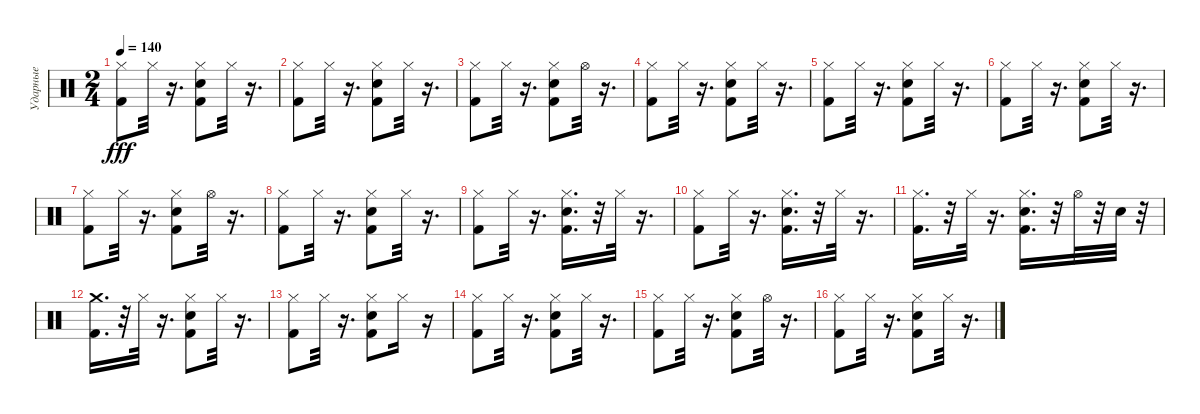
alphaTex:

\track ("Ударные" "Ударные") {instrument percussion}
\staff {score}
\articulation defaults
\ts (2 4)
\tempo 140
\clef neutral
\ks c
("Kick (hit) 2" "Hi-Hat (closed)").8{dy fff} "Hi-Hat (closed)".32 r.16{d} ("Kick (hit) 2" "Hi-Hat (closed)" "Snare (hit) 2").8 "Hi-Hat (closed)".32 r.16{d} |
("Kick (hit) 2" "Hi-Hat (closed)").8 "Hi-Hat (closed)".32 r.16{d} ("Snare (hit) 2" "Kick (hit) 2" "Hi-Hat (closed)").8 "Hi-Hat (closed)".32 r.16{d} |
("Kick (hit) 2" "Hi-Hat (closed)").8 "Hi-Hat (closed)".32 r.16{d} ("Snare (hit) 2" "Kick (hit) 2" "Hi-Hat (closed)").8 "Hi-Hat (open)".32 r.16{d} |
("Kick (hit) 2" "Hi-Hat (closed)").8 "Hi-Hat (closed)".32 r.16{d} ("Snare (hit) 2" "Kick (hit) 2" "Hi-Hat (closed)").8 "Hi-Hat (closed)".32 r.16{d} |
("Kick (hit) 2" "Hi-Hat (closed)").8 "Hi-Hat (closed)".32 r.16{d} ("Snare (hit) 2" "Kick (hit) 2" "Hi-Hat (closed)").8 "Hi-Hat (closed)".32 r.16{d} |
("Kick (hit) 2" "Hi-Hat (closed)").8 "Hi-Hat (closed)".32 r.16{d} ("Hi-Hat (closed)" "Snare (hit) 2" "Kick (hit) 2").8 "Hi-Hat (closed)".32 r.16{d} |
("Kick (hit) 2" "Hi-Hat (closed)").8 "Hi-Hat (closed)".32 r.16{d} ("Snare (hit) 2" "Kick (hit) 2" "Hi-Hat (closed)").8 "Hi-Hat (open)".32 r.16{d} |
("Kick (hit) 2" "Hi-Hat (closed)").8 "Hi-Hat (closed)".32 r.16{d} ("Kick (hit) 2" "Hi-Hat (closed)" "Snare (hit) 2").8 "Hi-Hat (closed)".32 r.16{d} |
("Kick (hit) 2" "Hi-Hat (closed)").8 "Hi-Hat (closed)".32 r.16{d} ("Snare (hit) 2" "Kick (hit) 2" "Hi-Hat (closed)").16{d} r.32 "Hi-Hat (closed)".32 r.16{d} |
("Kick (hit) 2" "Hi-Hat (closed)").8 "Hi-Hat (closed)".32 r.16{d} ("Snare (hit) 2" "Kick (hit) 2" "Hi-Hat (closed)").16{d} r.32 "Hi-Hat (closed)".32 r.16{d} |
("Kick (hit) 2" "Hi-Hat (closed)").16{d} r.32 "Hi-Hat (closed)".32 r.16{d} ("Hi-Hat (closed)" "Snare (hit) 2" "Kick (hit) 2").16{d} r.32 "Hi-Hat (open)".32 r.32 "Snare (hit) 2".32 r.32 |
("Kick (hit) 2" "Crash medium (hit)").16{d} r.32 "Hi-Hat (closed)".32 r.16{d} ("Hi-Hat (closed)" "Kick (hit) 2" "Snare (hit) 2").8 "Hi-Hat (closed)".32 r.16{d} |
("Kick (hit) 2" "Hi-Hat (closed)").8 "Hi-Hat (closed)".32 r.16{d} ("Snare (hit) 2" "Kick (hit) 2" "Hi-Hat (closed)").8 "Hi-Hat (closed)".16 r.16 |
("Kick (hit) 2" "Hi-Hat (closed)").8 "Hi-Hat (closed)".32 r.16{d} ("Hi-Hat (closed)" "Snare (hit) 2" "Kick (hit) 2").8 "Hi-Hat (closed)".32 r.16{d} |
("Kick (hit) 2" "Hi-Hat (closed)").8 "Hi-Hat (closed)".32 r.16{d} ("Snare (hit) 2" "Hi-Hat (closed)" "Kick (hit) 2").8 "Hi-Hat (open)".32 r.16{d} |
("Kick (hit) 2" "Hi-Hat (closed)").8 "Hi-Hat (closed)".32 r.16{d} ("Snare (hit) 2" "Kick (hit) 2" "Hi-Hat (closed)").8 "Hi-Hat (closed)".32 r.16{d}
